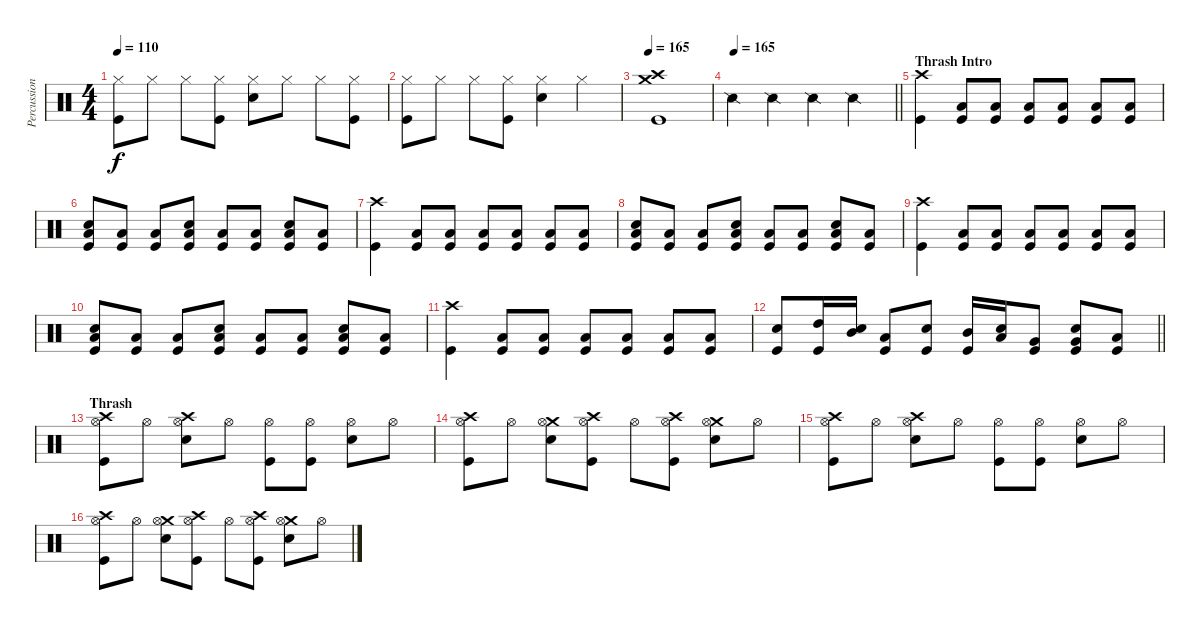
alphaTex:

\track ("Percussion" "Percussion") {instrument percussion}
\staff {score}
\articulation defaults
\ts (4 4)
\tempo 110
\clef neutral
\ks c
("Hi-Hat (closed)" "Kick (hit)").8{dy f} "Hi-Hat (closed)".8 "Hi-Hat (closed)".8 ("Hi-Hat (closed)" "Kick (hit)").8 ("Hi-Hat (closed)" "Snare (hit) 2").8 "Hi-Hat (closed)".8 "Hi-Hat (closed)".8 ("Hi-Hat (closed)" "Kick (hit)").8 |
("Hi-Hat (closed)" "Kick (hit)").8 "Hi-Hat (closed)".8 "Hi-Hat (closed)".8 ("Hi-Hat (closed)" "Kick (hit)").8 ("Hi-Hat (closed)" "Snare (hit) 2").4 "Hi-Hat (closed)".4 |
\tempo 110
\tempo 165
("Crash medium (hit)" "Crash high (hit)" "Kick (hit)").1 |
\tempo 165
\barLineRight lightlight "Snare (side stick) 2".4 "Snare (side stick) 2".4 "Snare (side stick) 2".4 "Snare (side stick) 2".4
|
\section ("" "Thrash Intro")
("Crash high (hit)" "Kick (hit)").4 ("Low Floor Tom (hit)" "Kick (hit)").8 ("Low Floor Tom (hit)" "Kick (hit)").8 ("Low Floor Tom (hit)" "Kick (hit)").8 ("Low Floor Tom (hit)" "Kick (hit)").8 ("Low Floor Tom (hit)" "Kick (hit)").8 ("Low Floor Tom (hit)" "Kick (hit)").8 |
("Snare (hit) 2" "Low Tom (hit)" "Kick (hit)").8 ("Low Floor Tom (hit)" "Kick (hit)").8 ("Low Floor Tom (hit)" "Kick (hit)").8 ("Snare (hit) 2" "Low Tom (hit)" "Kick (hit)").8 ("Low Floor Tom (hit)" "Kick (hit)").8 ("Low Floor Tom (hit)" "Kick (hit)").8 ("Snare (hit) 2" "Low Tom (hit)" "Kick (hit)").8 ("Low Floor Tom (hit)" "Kick (hit)").8 |
("Crash high (hit)" "Kick (hit)").4 ("Low Floor Tom (hit)" "Kick (hit)").8 ("Low Floor Tom (hit)" "Kick (hit)").8 ("Low Floor Tom (hit)" "Kick (hit)").8 ("Low Floor Tom (hit)" "Kick (hit)").8 ("Low Floor Tom (hit)" "Kick (hit)").8 ("Low Floor Tom (hit)" "Kick (hit)").8 |
("Snare (hit) 2" "Low Tom (hit)" "Kick (hit)").8 ("Low Floor Tom (hit)" "Kick (hit)").8 ("Low Floor Tom (hit)" "Kick (hit)").8 ("Snare (hit) 2" "Low Tom (hit)" "Kick (hit)").8 ("Low Floor Tom (hit)" "Kick (hit)").8 ("Low Floor Tom (hit)" "Kick (hit)").8 ("Snare (hit) 2" "Low Tom (hit)" "Kick (hit)").8 ("Low Floor Tom (hit)" "Kick (hit)").8 |
("Crash high (hit)" "Kick (hit)").4 ("Low Floor Tom (hit)" "Kick (hit)").8 ("Low Floor Tom (hit)" "Kick (hit)").8 ("Low Floor Tom (hit)" "Kick (hit)").8 ("Low Floor Tom (hit)" "Kick (hit)").8 ("Low Floor Tom (hit)" "Kick (hit)").8 ("Low Floor Tom (hit)" "Kick (hit)").8 |
("Snare (hit) 2" "Low Tom (hit)" "Kick (hit)").8 ("Low Floor Tom (hit)" "Kick (hit)").8 ("Low Floor Tom (hit)" "Kick (hit)").8 ("Snare (hit) 2" "Low Tom (hit)" "Kick (hit)").8 ("Low Floor Tom (hit)" "Kick (hit)").8 ("Low Floor Tom (hit)" "Kick (hit)").8 ("Snare (hit) 2" "Low Tom (hit)" "Kick (hit)").8 ("Low Floor Tom (hit)" "Kick (hit)").8 |
("Crash high (hit)" "Kick (hit)").4 ("Low Floor Tom (hit)" "Kick (hit)").8 ("Low Floor Tom (hit)" "Kick (hit)").8 ("Low Floor Tom (hit)" "Kick (hit)").8 ("Low Floor Tom (hit)" "Kick (hit)").8 ("Low Floor Tom (hit)" "Kick (hit)").8 ("Low Floor Tom (hit)" "Kick (hit)").8 |
\barLineRight lightlight
("Snare (hit) 2" "Kick (hit)").8 ("High Tom (hit)" "Kick (hit)").16 ("Snare (hit) 2" "Mid Tom (hit)").16 ("Low Tom (hit)" "Kick (hit)").8 ("Snare (hit) 2" "Kick (hit)").8 ("Mid Tom (hit)" "Kick (hit)").16 ("Snare (hit) 2" "Low Tom (hit)").16 ("Very Low Tom (hit)" "Kick (hit)").8 ("Snare (hit) 2" "Very Low Tom (hit)" "Kick (hit)").8 ("Low Floor Tom (hit)" "Kick (hit)").8 |
\section ("" "Thrash")
("Crash high (hit)" "Hi-Hat (open)" "Kick (hit)").8 "Hi-Hat (open)".8 ("Crash high (hit)" "Hi-Hat (open)" "Snare (hit) 2").8 "Hi-Hat (open)".8 ("Hi-Hat (open)" "Kick (hit)").8 ("Hi-Hat (open)" "Kick (hit)").8 ("Hi-Hat (open)" "Snare (hit) 2").8 "Hi-Hat (open)".8 |
("Crash high (hit)" "Hi-Hat (open)" "Kick (hit)").8 "Hi-Hat (open)".8 ("Crash medium (hit)" "Hi-Hat (open)" "Snare (hit) 2").8 ("Crash high (hit)" "Hi-Hat (open)" "Kick (hit)").8 "Hi-Hat (open)".8 ("Crash high (hit)" "Hi-Hat (open)" "Kick (hit)").8 ("Crash medium (hit)" "Hi-Hat (open)" "Snare (hit) 2").8 "Hi-Hat (open)".8 |
("Crash high (hit)" "Hi-Hat (open)" "Kick (hit)").8 "Hi-Hat (open)".8 ("Crash high (hit)" "Hi-Hat (open)" "Snare (hit) 2").8 "Hi-Hat (open)".8 ("Hi-Hat (open)" "Kick (hit)").8 ("Hi-Hat (open)" "Kick (hit)").8 ("Hi-Hat (open)" "Snare (hit) 2").8 "Hi-Hat (open)".8 |
("Crash high (hit)" "Hi-Hat (open)" "Kick (hit)").8 "Hi-Hat (open)".8 ("Crash medium (hit)" "Hi-Hat (open)" "Snare (hit) 2").8 ("Crash high (hit)" "Hi-Hat (open)" "Kick (hit)").8 "Hi-Hat (open)".8 ("Crash high (hit)" "Hi-Hat (open)" "Kick (hit)").8 ("Crash medium (hit)" "Hi-Hat (open)" "Snare (hit) 2").8 "Hi-Hat (open)".8
